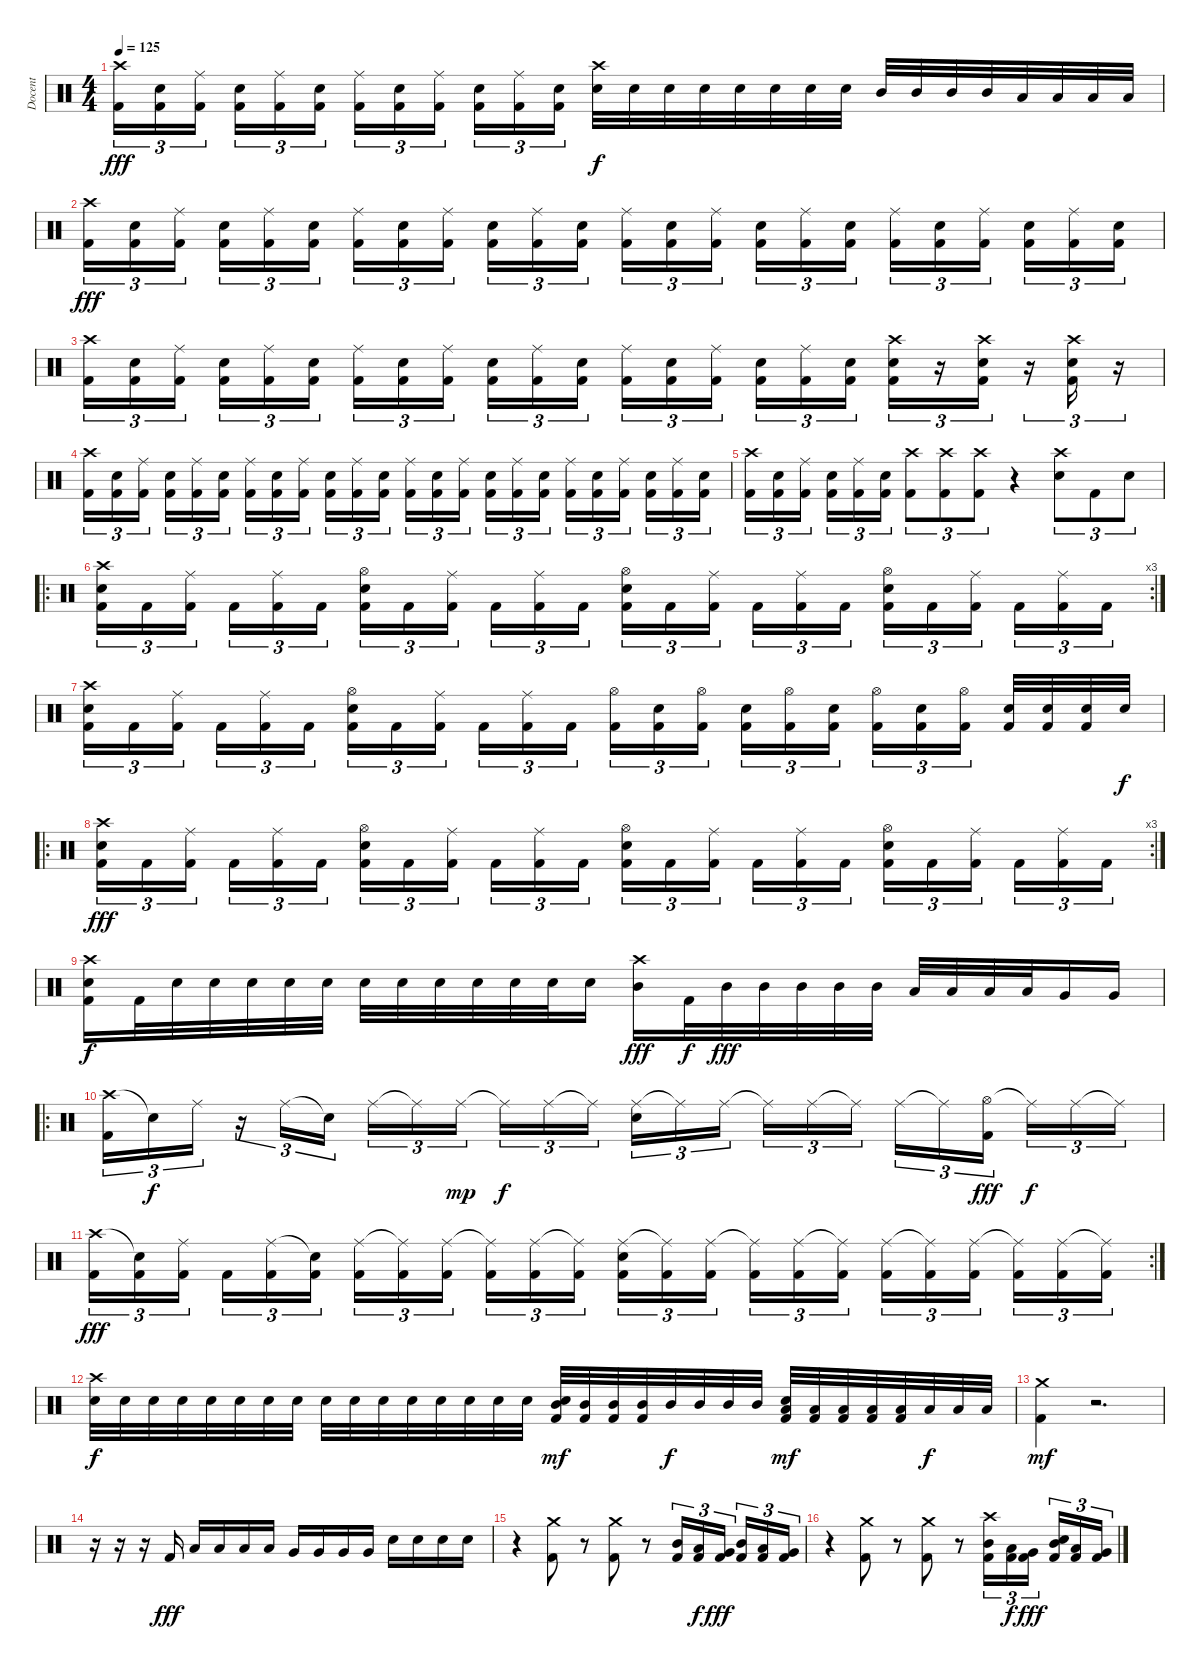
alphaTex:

\track ("Docent" "Docent") {instrument percussion}
\staff {score}
\articulation defaults
\ts (4 4)
\tempo 125
\clef neutral
\ks c
("Crash high (hit)" "Kick (hit) 2").16{tu (3 2) dy fff} ("Electric Snare (hit)" "Kick (hit) 2").16{tu (3 2)} ("Ride (middle)" "Kick (hit) 2").16{tu (3 2)} ("Electric Snare (hit)" "Kick (hit) 2").16{tu (3 2)} ("Ride (middle)" "Kick (hit) 2").16{tu (3 2)} ("Electric Snare (hit)" "Kick (hit) 2").16{tu (3 2)} ("Ride (middle)" "Kick (hit) 2").16{tu (3 2)} ("Electric Snare (hit)" "Kick (hit) 2").16{tu (3 2)} ("Ride (middle)" "Kick (hit) 2").16{tu (3 2)} ("Electric Snare (hit)" "Kick (hit) 2").16{tu (3 2)} ("Ride (middle)" "Kick (hit) 2").16{tu (3 2)} ("Electric Snare (hit)" "Kick (hit) 2").16{tu (3 2)} ("Crash high (hit)" "Electric Snare (hit)").32{dy f} "Electric Snare (hit)".32 "Electric Snare (hit)".32 "Electric Snare (hit)".32 "Electric Snare (hit)".32 "Electric Snare (hit)".32 "Electric Snare (hit)".32 "Electric Snare (hit)".32 "Mid Tom (hit)".32 "Mid Tom (hit)".32 "Mid Tom (hit)".32 "Mid Tom (hit)".32 "Low Tom (hit)".32 "Low Tom (hit)".32 "Low Tom (hit)".32 "Low Tom (hit)".32 |
("Crash high (hit)" "Kick (hit) 2").16{tu (3 2) dy fff} ("Electric Snare (hit)" "Kick (hit) 2").16{tu (3 2)} ("Ride (middle)" "Kick (hit) 2").16{tu (3 2)} ("Electric Snare (hit)" "Kick (hit) 2").16{tu (3 2)} ("Ride (middle)" "Kick (hit) 2").16{tu (3 2)} ("Electric Snare (hit)" "Kick (hit) 2").16{tu (3 2)} ("Ride (middle)" "Kick (hit) 2").16{tu (3 2)} ("Electric Snare (hit)" "Kick (hit) 2").16{tu (3 2)} ("Ride (middle)" "Kick (hit) 2").16{tu (3 2)} ("Electric Snare (hit)" "Kick (hit) 2").16{tu (3 2)} ("Ride (middle)" "Kick (hit) 2").16{tu (3 2)} ("Electric Snare (hit)" "Kick (hit) 2").16{tu (3 2)} ("Ride (middle)" "Kick (hit) 2").16{tu (3 2)} ("Electric Snare (hit)" "Kick (hit) 2").16{tu (3 2)} ("Ride (middle)" "Kick (hit) 2").16{tu (3 2)} ("Electric Snare (hit)" "Kick (hit) 2").16{tu (3 2)} ("Ride (middle)" "Kick (hit) 2").16{tu (3 2)} ("Electric Snare (hit)" "Kick (hit) 2").16{tu (3 2)} ("Ride (middle)" "Kick (hit) 2").16{tu (3 2)} ("Electric Snare (hit)" "Kick (hit) 2").16{tu (3 2)} ("Ride (middle)" "Kick (hit) 2").16{tu (3 2)} ("Electric Snare (hit)" "Kick (hit) 2").16{tu (3 2)} ("Ride (middle)" "Kick (hit) 2").16{tu (3 2)} ("Electric Snare (hit)" "Kick (hit) 2").16{tu (3 2)} |
("Crash high (hit)" "Kick (hit) 2").16{tu (3 2)} ("Electric Snare (hit)" "Kick (hit) 2").16{tu (3 2)} ("Ride (middle)" "Kick (hit) 2").16{tu (3 2)} ("Electric Snare (hit)" "Kick (hit) 2").16{tu (3 2)} ("Ride (middle)" "Kick (hit) 2").16{tu (3 2)} ("Electric Snare (hit)" "Kick (hit) 2").16{tu (3 2)} ("Ride (middle)" "Kick (hit) 2").16{tu (3 2)} ("Electric Snare (hit)" "Kick (hit) 2").16{tu (3 2)} ("Ride (middle)" "Kick (hit) 2").16{tu (3 2)} ("Electric Snare (hit)" "Kick (hit) 2").16{tu (3 2)} ("Ride (middle)" "Kick (hit) 2").16{tu (3 2)} ("Electric Snare (hit)" "Kick (hit) 2").16{tu (3 2)} ("Ride (middle)" "Kick (hit) 2").16{tu (3 2)} ("Electric Snare (hit)" "Kick (hit) 2").16{tu (3 2)} ("Ride (middle)" "Kick (hit) 2").16{tu (3 2)} ("Electric Snare (hit)" "Kick (hit) 2").16{tu (3 2)} ("Ride (middle)" "Kick (hit) 2").16{tu (3 2)} ("Electric Snare (hit)" "Kick (hit) 2").16{tu (3 2)} ("Crash high (hit)" "Electric Snare (hit)" "Kick (hit) 2").16{tu (3 2)} r.16{tu (3 2)} ("Crash high (hit)" "Electric Snare (hit)" "Kick (hit) 2").16{tu (3 2)} r.16{tu (3 2)} ("Crash high (hit)" "Electric Snare (hit)" "Kick (hit) 2").16{tu (3 2)} r.16{tu (3 2)} |
("Crash high (hit)" "Kick (hit) 2").16{tu (3 2)} ("Electric Snare (hit)" "Kick (hit) 2").16{tu (3 2)} ("Ride (middle)" "Kick (hit) 2").16{tu (3 2)} ("Electric Snare (hit)" "Kick (hit) 2").16{tu (3 2)} ("Ride (middle)" "Kick (hit) 2").16{tu (3 2)} ("Electric Snare (hit)" "Kick (hit) 2").16{tu (3 2)} ("Ride (middle)" "Kick (hit) 2").16{tu (3 2)} ("Electric Snare (hit)" "Kick (hit) 2").16{tu (3 2)} ("Ride (middle)" "Kick (hit) 2").16{tu (3 2)} ("Electric Snare (hit)" "Kick (hit) 2").16{tu (3 2)} ("Ride (middle)" "Kick (hit) 2").16{tu (3 2)} ("Electric Snare (hit)" "Kick (hit) 2").16{tu (3 2)} ("Ride (middle)" "Kick (hit) 2").16{tu (3 2)} ("Electric Snare (hit)" "Kick (hit) 2").16{tu (3 2)} ("Ride (middle)" "Kick (hit) 2").16{tu (3 2)} ("Electric Snare (hit)" "Kick (hit) 2").16{tu (3 2)} ("Ride (middle)" "Kick (hit) 2").16{tu (3 2)} ("Electric Snare (hit)" "Kick (hit) 2").16{tu (3 2)} ("Ride (middle)" "Kick (hit) 2").16{tu (3 2)} ("Electric Snare (hit)" "Kick (hit) 2").16{tu (3 2)} ("Ride (middle)" "Kick (hit) 2").16{tu (3 2)} ("Electric Snare (hit)" "Kick (hit) 2").16{tu (3 2)} ("Ride (middle)" "Kick (hit) 2").16{tu (3 2)} ("Electric Snare (hit)" "Kick (hit) 2").16{tu (3 2)} |
("Crash high (hit)" "Kick (hit) 2").16{tu (3 2)} ("Electric Snare (hit)" "Kick (hit) 2").16{tu (3 2)} ("Ride (middle)" "Kick (hit) 2").16{tu (3 2)} ("Electric Snare (hit)" "Kick (hit) 2").16{tu (3 2)} ("Ride (middle)" "Kick (hit) 2").16{tu (3 2)} ("Electric Snare (hit)" "Kick (hit) 2").16{tu (3 2)} ("Crash high (hit)" "Kick (hit) 2").8{tu (3 2)} ("Crash high (hit)" "Kick (hit) 2").8{tu (3 2)} ("Crash high (hit)" "Kick (hit) 2").8{tu (3 2)} r.4 ("Crash high (hit)" "Electric Snare (hit)").8{tu (3 2)} "Kick (hit) 2".8{tu (3 2)} "Electric Snare (hit)".8{tu (3 2)} |
\ro
\rc 3
("Crash high (hit)" "Electric Snare (hit)" "Kick (hit) 2").16{tu (3 2)} "Kick (hit) 2".16{tu (3 2)} ("Ride (middle)" "Kick (hit) 2").16{tu (3 2)} "Kick (hit) 2".16{tu (3 2)} ("Ride (middle)" "Kick (hit) 2").16{tu (3 2)} "Kick (hit) 2".16{tu (3 2)} ("Hi-Hat (open)" "Electric Snare (hit)" "Kick (hit) 2").16{tu (3 2)} "Kick (hit) 2".16{tu (3 2)} ("Ride (middle)" "Kick (hit) 2").16{tu (3 2)} "Kick (hit) 2".16{tu (3 2)} ("Ride (middle)" "Kick (hit) 2").16{tu (3 2)} "Kick (hit) 2".16{tu (3 2)} ("Hi-Hat (open)" "Electric Snare (hit)" "Kick (hit) 2").16{tu (3 2)} "Kick (hit) 2".16{tu (3 2)} ("Ride (middle)" "Kick (hit) 2").16{tu (3 2)} "Kick (hit) 2".16{tu (3 2)} ("Ride (middle)" "Kick (hit) 2").16{tu (3 2)} "Kick (hit) 2".16{tu (3 2)} ("Hi-Hat (open)" "Electric Snare (hit)" "Kick (hit) 2").16{tu (3 2)} "Kick (hit) 2".16{tu (3 2)} ("Ride (middle)" "Kick (hit) 2").16{tu (3 2)} "Kick (hit) 2".16{tu (3 2)} ("Ride (middle)" "Kick (hit) 2").16{tu (3 2)} "Kick (hit) 2".16{tu (3 2)} |
("Crash high (hit)" "Electric Snare (hit)" "Kick (hit) 2").16{tu (3 2)} "Kick (hit) 2".16{tu (3 2)} ("Ride (middle)" "Kick (hit) 2").16{tu (3 2)} "Kick (hit) 2".16{tu (3 2)} ("Ride (middle)" "Kick (hit) 2").16{tu (3 2)} "Kick (hit) 2".16{tu (3 2)} ("Hi-Hat (open)" "Electric Snare (hit)" "Kick (hit) 2").16{tu (3 2)} "Kick (hit) 2".16{tu (3 2)} ("Ride (middle)" "Kick (hit) 2").16{tu (3 2)} "Kick (hit) 2".16{tu (3 2)} ("Ride (middle)" "Kick (hit) 2").16{tu (3 2)} "Kick (hit) 2".16{tu (3 2)} ("Hi-Hat (open)" "Kick (hit) 2").16{tu (3 2)} ("Electric Snare (hit)" "Kick (hit) 2").16{tu (3 2)} ("Hi-Hat (open)" "Kick (hit) 2").16{tu (3 2)} ("Electric Snare (hit)" "Kick (hit) 2").16{tu (3 2)} ("Hi-Hat (open)" "Kick (hit) 2").16{tu (3 2)} ("Electric Snare (hit)" "Kick (hit) 2").16{tu (3 2)} ("Hi-Hat (open)" "Kick (hit) 2").16{tu (3 2)} ("Electric Snare (hit)" "Kick (hit) 2").16{tu (3 2)} ("Hi-Hat (open)" "Kick (hit) 2").16{tu (3 2)} ("Electric Snare (hit)" "Kick (hit) 2").32 ("Electric Snare (hit)" "Kick (hit) 2").32 ("Electric Snare (hit)" "Kick (hit) 2").32 "Electric Snare (hit)".32{dy f} |
\ro
\rc 3
("Crash high (hit)" "Electric Snare (hit)" "Kick (hit) 2").16{tu (3 2) dy fff} "Kick (hit) 2".16{tu (3 2)} ("Ride (middle)" "Kick (hit) 2").16{tu (3 2)} "Kick (hit) 2".16{tu (3 2)} ("Ride (middle)" "Kick (hit) 2").16{tu (3 2)} "Kick (hit) 2".16{tu (3 2)} ("Hi-Hat (open)" "Electric Snare (hit)" "Kick (hit) 2").16{tu (3 2)} "Kick (hit) 2".16{tu (3 2)} ("Ride (middle)" "Kick (hit) 2").16{tu (3 2)} "Kick (hit) 2".16{tu (3 2)} ("Ride (middle)" "Kick (hit) 2").16{tu (3 2)} "Kick (hit) 2".16{tu (3 2)} ("Hi-Hat (open)" "Electric Snare (hit)" "Kick (hit) 2").16{tu (3 2)} "Kick (hit) 2".16{tu (3 2)} ("Ride (middle)" "Kick (hit) 2").16{tu (3 2)} "Kick (hit) 2".16{tu (3 2)} ("Ride (middle)" "Kick (hit) 2").16{tu (3 2)} "Kick (hit) 2".16{tu (3 2)} ("Hi-Hat (open)" "Electric Snare (hit)" "Kick (hit) 2").16{tu (3 2)} "Kick (hit) 2".16{tu (3 2)} ("Ride (middle)" "Kick (hit) 2").16{tu (3 2)} "Kick (hit) 2".16{tu (3 2)} ("Ride (middle)" "Kick (hit) 2").16{tu (3 2)} "Kick (hit) 2".16{tu (3 2)} |
("Crash high (hit)" "Kick (hit) 2" "Electric Snare (hit)").16{dy f} "Kick (hit) 2".32 "Electric Snare (hit)".32 "Electric Snare (hit)".32 "Electric Snare (hit)".32 "Electric Snare (hit)".32 "Electric Snare (hit)".32 "Electric Snare (hit)".32 "Electric Snare (hit)".32 "Electric Snare (hit)".32 "Electric Snare (hit)".32 "Electric Snare (hit)".32 "Electric Snare (hit)".32 "Electric Snare (hit)".16 ("Crash high (hit)" "Mid Tom (hit)").16{dy fff} "Kick (hit) 2".32{dy f} "Mid Tom (hit)".32{dy fff} "Mid Tom (hit)".32 "Mid Tom (hit)".32 "Mid Tom (hit)".32 "Mid Tom (hit)".32 "Low Tom (hit)".32 "Low Tom (hit)".32 "Low Tom (hit)".32 "Low Tom (hit)".32 "Very Low Tom (hit)".16 "Very Low Tom (hit)".16 |
\ro
("Crash high (hit)" "Kick (hit) 2").16{tu (3 2)} "Snare (hit)"{t}.16{tu (3 2) dy f} "Ride (middle)".16{tu (3 2)} r.16{tu (3 2)} "Ride (middle)".16{tu (3 2)} "Snare (hit)"{t}.16{tu (3 2)} "Ride (middle)".16{tu (3 2)} "Ride (middle)"{t}.16{tu (3 2)} "Ride (middle)".16{tu (3 2) dy mp} "Ride (middle)"{t}.16{tu (3 2) dy f} "Ride (middle)".16{tu (3 2)} "Ride (middle)"{t}.16{tu (3 2)} ("Ride (middle)" "Electric Snare (hit)").16{tu (3 2)} "Ride (middle)"{t}.16{tu (3 2)} "Ride (middle)".16{tu (3 2)} "Ride (middle)"{t}.16{tu (3 2)} "Ride (middle)".16{tu (3 2)} "Ride (middle)"{t}.16{tu (3 2)} "Ride (middle)".16{tu (3 2)} "Ride (middle)"{t}.16{tu (3 2)} ("Hi-Hat (open)" "Kick (hit) 2").16{tu (3 2) dy fff} "Ride (middle)"{t}.16{tu (3 2) dy f} "Ride (middle)".16{tu (3 2)} "Ride (middle)"{t}.16{tu (3 2)} |
\rc 2
("Crash high (hit)" "Kick (hit) 2").16{tu (3 2) dy fff} ("Snare (hit)"{t} "Kick (hit) 2").16{tu (3 2)} ("Ride (middle)" "Kick (hit) 2").16{tu (3 2)} "Kick (hit) 2".16{tu (3 2)} ("Ride (middle)" "Kick (hit) 2").16{tu (3 2)} ("Snare (hit)"{t} "Kick (hit) 2").16{tu (3 2)} ("Ride (middle)" "Kick (hit) 2").16{tu (3 2)} ("Ride (middle)"{t} "Kick (hit) 2").16{tu (3 2)} ("Ride (middle)" "Kick (hit) 2").16{tu (3 2)} ("Ride (middle)"{t} "Kick (hit) 2").16{tu (3 2)} ("Ride (middle)" "Kick (hit) 2").16{tu (3 2)} ("Ride (middle)"{t} "Kick (hit) 2").16{tu (3 2)} ("Ride (middle)" "Electric Snare (hit)" "Kick (hit) 2").16{tu (3 2)} ("Ride (middle)"{t} "Kick (hit) 2").16{tu (3 2)} ("Ride (middle)" "Kick (hit) 2").16{tu (3 2)} ("Ride (middle)"{t} "Kick (hit) 2").16{tu (3 2)} ("Ride (middle)" "Kick (hit) 2").16{tu (3 2)} ("Ride (middle)"{t} "Kick (hit) 2").16{tu (3 2)} ("Ride (middle)" "Kick (hit) 2").16{tu (3 2)} ("Ride (middle)"{t} "Kick (hit) 2").16{tu (3 2)} ("Ride (middle)" "Kick (hit) 2").16{tu (3 2)} ("Ride (middle)"{t} "Kick (hit) 2").16{tu (3 2)} ("Ride (middle)" "Kick (hit) 2").16{tu (3 2)} ("Ride (middle)"{t} "Kick (hit) 2").16{tu (3 2)} |
("Crash high (hit)" "Electric Snare (hit)").32{dy f} "Electric Snare (hit)".32 "Electric Snare (hit)".32 "Electric Snare (hit)".32 "Electric Snare (hit)".32 "Electric Snare (hit)".32 "Electric Snare (hit)".32 "Electric Snare (hit)".32 "Electric Snare (hit)".32 "Electric Snare (hit)".32 "Electric Snare (hit)".32 "Electric Snare (hit)".32 "Electric Snare (hit)".32 "Electric Snare (hit)".32 "Electric Snare (hit)".32 "Electric Snare (hit)".32 ("Electric Snare (hit)" "Mid Tom (hit)" "Kick (hit) 2").32{dy mf} ("Mid Tom (hit)" "Kick (hit) 2").32 ("Mid Tom (hit)" "Kick (hit) 2").32 ("Mid Tom (hit)" "Kick (hit) 2").32 "Mid Tom (hit)".32{dy f} "Mid Tom (hit)".32 "Mid Tom (hit)".32 "Mid Tom (hit)".32 ("Electric Snare (hit)" "Low Tom (hit)" "Kick (hit) 2").32{dy mf} ("Low Tom (hit)" "Kick (hit) 2").32 ("Low Tom (hit)" "Kick (hit) 2").32 ("Low Tom (hit)" "Kick (hit) 2").32 ("Low Tom (hit)" "Kick (hit) 2").32 "Low Tom (hit)".32{dy f} "Low Tom (hit)".32 "Low Tom (hit)".32 |
("Kick (hit) 2" "Crash medium (hit)").4{dy mf} r.2{d} |
r.16 r.16 r.16 "Kick (hit) 2".16{dy fff} "Low Tom (hit)".16 "Low Tom (hit)".16 "Low Tom (hit)".16 "Low Tom (hit)".16 "Very Low Tom (hit)".16 "Very Low Tom (hit)".16 "Very Low Tom (hit)".16 "Very Low Tom (hit)".16 "Electric Snare (hit)".16 "Electric Snare (hit)".16 "Electric Snare (hit)".16 "Electric Snare (hit)".16 |
r.4 ("Crash medium (hit)" "Kick (hit) 2").8 r.8 ("Crash medium (hit)" "Kick (hit) 2").8 r.8 ("Mid Tom (hit)" "Kick (hit) 2").16{tu (3 2)} ("Low Tom (hit)" "Kick (hit) 2").16{tu (3 2) dy f} ("Very Low Tom (hit)" "Kick (hit) 2").16{tu (3 2) dy fff} ("Mid Tom (hit)" "Kick (hit) 2").16{tu (3 2)} ("Low Tom (hit)" "Kick (hit) 2").16{tu (3 2)} ("Very Low Tom (hit)" "Kick (hit) 2").16{tu (3 2)} |
r.4 ("Crash medium (hit)" "Kick (hit) 2").8 r.8 ("Crash medium (hit)" "Kick (hit) 2").8 r.8 ("Crash high (hit)" "Mid Tom (hit)" "Kick (hit) 2").16{tu (3 2)} ("Low Tom (hit)" "Kick (hit) 2").16{tu (3 2) dy f} ("Very Low Tom (hit)" "Kick (hit) 2").16{tu (3 2) dy fff} ("Electric Snare (hit)" "Mid Tom (hit)" "Kick (hit) 2").16{tu (3 2)} ("Low Tom (hit)" "Kick (hit) 2").16{tu (3 2)} ("Very Low Tom (hit)" "Kick (hit) 2").16{tu (3 2)}
